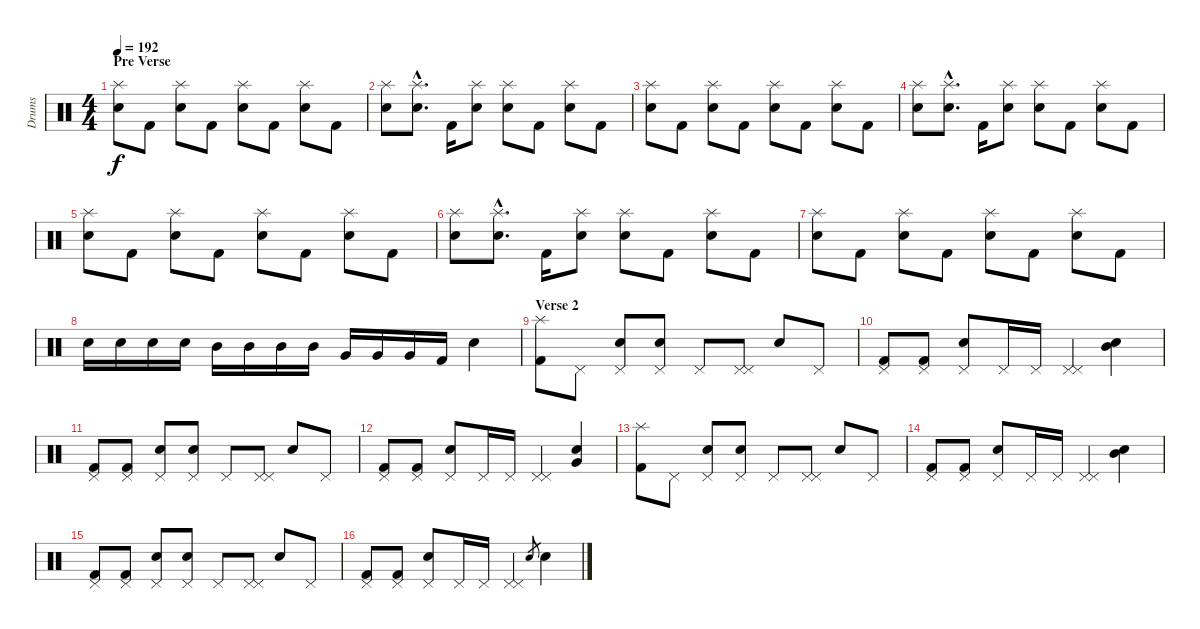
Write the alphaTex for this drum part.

\track ("Drums" "Drums") {instrument percussion}
\staff {score}
\articulation defaults
\ts (4 4)
\section ("" "Pre Verse")
\tempo 192
\clef neutral
\ks c
("Splash (hit)" "Electric Snare (hit)").8{dy f} "Kick (hit) 2".8 ("Splash (hit)" "Electric Snare (hit)").8 "Kick (hit) 2".8 ("Splash (hit)" "Electric Snare (hit)").8 "Kick (hit) 2".8 ("Splash (hit)" "Electric Snare (hit)").8 "Kick (hit) 2".8 |
("Splash (hit)" "Electric Snare (hit)").8 ("Splash (hit)"{hac} "Electric Snare (hit)"{hac}).8{d} "Kick (hit) 2".16 ("Splash (hit)" "Electric Snare (hit)").8 ("Splash (hit)" "Electric Snare (hit)").8 "Kick (hit) 2".8 ("Splash (hit)" "Electric Snare (hit)").8 "Kick (hit) 2".8 |
("Splash (hit)" "Electric Snare (hit)").8 "Kick (hit) 2".8 ("Splash (hit)" "Electric Snare (hit)").8 "Kick (hit) 2".8 ("Splash (hit)" "Electric Snare (hit)").8 "Kick (hit) 2".8 ("Splash (hit)" "Electric Snare (hit)").8 "Kick (hit) 2".8 |
("Splash (hit)" "Electric Snare (hit)").8 ("Splash (hit)"{hac} "Electric Snare (hit)"{hac}).8{d} "Kick (hit) 2".16 ("Splash (hit)" "Electric Snare (hit)").8 ("Splash (hit)" "Electric Snare (hit)").8 "Kick (hit) 2".8 ("Splash (hit)" "Electric Snare (hit)").8 "Kick (hit) 2".8 |
("Splash (hit)" "Electric Snare (hit)").8 "Kick (hit) 2".8 ("Splash (hit)" "Electric Snare (hit)").8 "Kick (hit) 2".8 ("Splash (hit)" "Electric Snare (hit)").8 "Kick (hit) 2".8 ("Splash (hit)" "Electric Snare (hit)").8 "Kick (hit) 2".8 |
("Splash (hit)" "Electric Snare (hit)").8 ("Splash (hit)"{hac} "Electric Snare (hit)"{hac}).8{d} "Kick (hit) 2".16 ("Splash (hit)" "Electric Snare (hit)").8 ("Splash (hit)" "Electric Snare (hit)").8 "Kick (hit) 2".8 ("Splash (hit)" "Electric Snare (hit)").8 "Kick (hit) 2".8 |
("Splash (hit)" "Electric Snare (hit)").8 "Kick (hit) 2".8 ("Splash (hit)" "Electric Snare (hit)").8 "Kick (hit) 2".8 ("Splash (hit)" "Electric Snare (hit)").8 "Kick (hit) 2".8 ("Splash (hit)" "Electric Snare (hit)").8 "Kick (hit) 2".8 |
"Electric Snare (hit)".16 "Electric Snare (hit)".16 "Electric Snare (hit)".16 "Electric Snare (hit)".16 "Mid Tom (hit)".16 "Mid Tom (hit)".16 "Mid Tom (hit)".16 "Mid Tom (hit)".16 "Very Low Tom (hit)".16 "Very Low Tom (hit)".16 "Very Low Tom (hit)".16 "Kick (hit) 2".16 "Electric Snare (hit)".4 |
\section ("" "Verse 2")
("Splash (hit)" "Kick (hit) 2").8 "Pedal Hi-Hat (hit)".8 ("Pedal Hi-Hat (hit)" "Electric Snare (hit)").8 ("Pedal Hi-Hat (hit)" "Electric Snare (hit)").8 "Pedal Hi-Hat (hit)".8 ("Pedal Hi-Hat (hit)" "Pedal Hi-Hat (hit)").8 "Electric Snare (hit)".8 "Pedal Hi-Hat (hit)".8 |
("Pedal Hi-Hat (hit)" "Kick (hit) 2").8 ("Pedal Hi-Hat (hit)" "Kick (hit) 2").8 ("Pedal Hi-Hat (hit)" "Electric Snare (hit)").8 "Pedal Hi-Hat (hit)".16 "Pedal Hi-Hat (hit)".16 ("Pedal Hi-Hat (hit)" "Pedal Hi-Hat (hit)").4 ("Mid Tom (hit)" "Electric Snare (hit)").4 |
("Pedal Hi-Hat (hit)" "Kick (hit) 2").8 ("Pedal Hi-Hat (hit)" "Kick (hit) 2").8 ("Pedal Hi-Hat (hit)" "Electric Snare (hit)").8 ("Pedal Hi-Hat (hit)" "Electric Snare (hit)").8 "Pedal Hi-Hat (hit)".8 ("Pedal Hi-Hat (hit)" "Pedal Hi-Hat (hit)").8 "Electric Snare (hit)".8 "Pedal Hi-Hat (hit)".8 |
("Pedal Hi-Hat (hit)" "Kick (hit) 2").8 ("Pedal Hi-Hat (hit)" "Kick (hit) 2").8 ("Pedal Hi-Hat (hit)" "Electric Snare (hit)").8 "Pedal Hi-Hat (hit)".16 "Pedal Hi-Hat (hit)".16 ("Pedal Hi-Hat (hit)" "Pedal Hi-Hat (hit)").4 ("Very Low Tom (hit)" "Electric Snare (hit)").4 |
("Splash (hit)" "Kick (hit) 2").8 "Pedal Hi-Hat (hit)".8 ("Pedal Hi-Hat (hit)" "Electric Snare (hit)").8 ("Pedal Hi-Hat (hit)" "Electric Snare (hit)").8 "Pedal Hi-Hat (hit)".8 ("Pedal Hi-Hat (hit)" "Pedal Hi-Hat (hit)").8 "Electric Snare (hit)".8 "Pedal Hi-Hat (hit)".8 |
("Pedal Hi-Hat (hit)" "Kick (hit) 2").8 ("Pedal Hi-Hat (hit)" "Kick (hit) 2").8 ("Pedal Hi-Hat (hit)" "Electric Snare (hit)").8 "Pedal Hi-Hat (hit)".16 "Pedal Hi-Hat (hit)".16 ("Pedal Hi-Hat (hit)" "Pedal Hi-Hat (hit)").4 ("Mid Tom (hit)" "Electric Snare (hit)").4 |
("Pedal Hi-Hat (hit)" "Kick (hit) 2").8 ("Pedal Hi-Hat (hit)" "Kick (hit) 2").8 ("Pedal Hi-Hat (hit)" "Electric Snare (hit)").8 ("Pedal Hi-Hat (hit)" "Electric Snare (hit)").8 "Pedal Hi-Hat (hit)".8 ("Pedal Hi-Hat (hit)" "Pedal Hi-Hat (hit)").8 "Electric Snare (hit)".8 "Pedal Hi-Hat (hit)".8 |
("Pedal Hi-Hat (hit)" "Kick (hit) 2").8 ("Pedal Hi-Hat (hit)" "Kick (hit) 2").8 ("Pedal Hi-Hat (hit)" "Electric Snare (hit)").8 "Pedal Hi-Hat (hit)".16 "Pedal Hi-Hat (hit)".16 ("Pedal Hi-Hat (hit)" "Pedal Hi-Hat (hit)").4 "Electric Snare (hit)".8{gr} "Electric Snare (hit)".4
